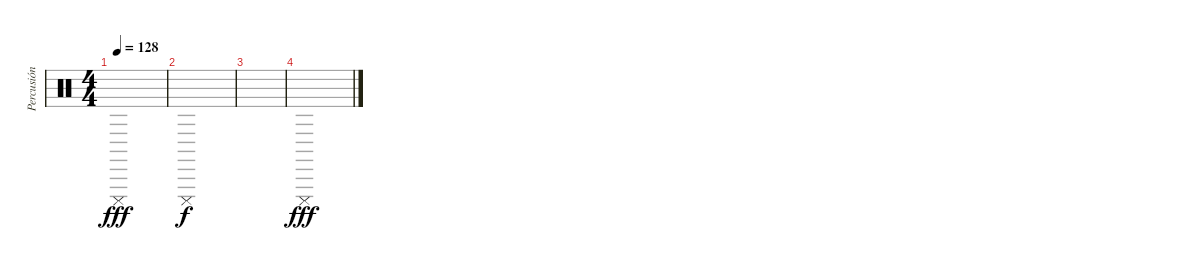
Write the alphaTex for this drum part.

\track ("Percusión" "Percusión") {instrument percussion}
\staff {score}
\articulation defaults
\ts (4 4)
\tempo 128
\clef neutral
\ks c "Cuica (mute)".1{dy fff}
|
"Cuica (mute)".1{dy f} |
|
"Cuica (mute)".1{dy fff}
